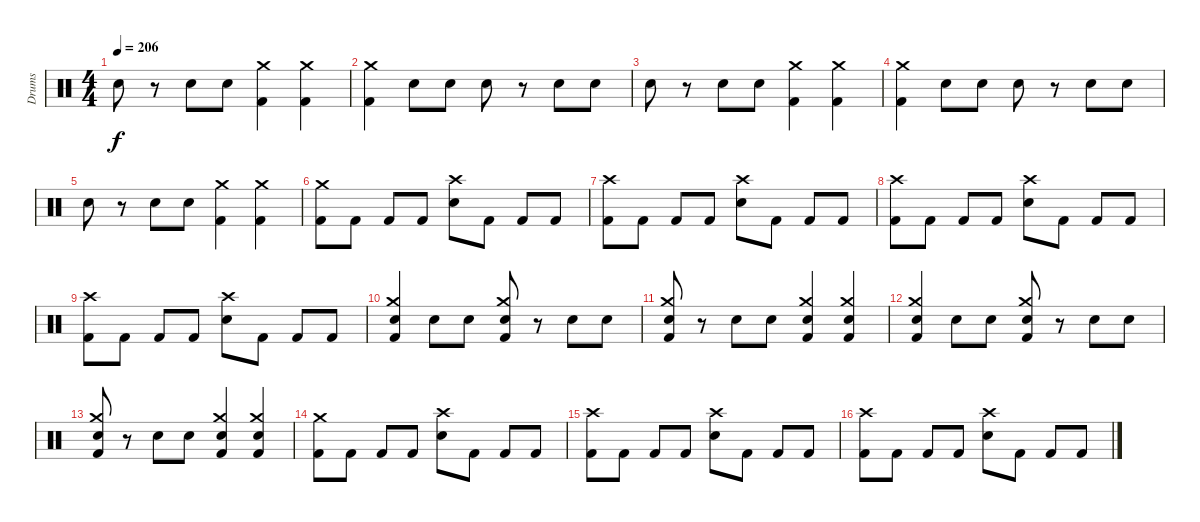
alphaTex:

\track ("Drums" "Drums") {instrument percussion}
\staff {score}
\articulation defaults
\ts (4 4)
\tempo 206
\clef neutral
\ks c "Snare (hit) 2".8{dy f}
r.8 "Snare (hit) 2".8 "Snare (hit) 2".8 ("Crash medium (hit)" "Kick (hit) 2").4 ("Crash medium (hit)" "Kick (hit) 2").4 |
("Crash medium (hit)" "Kick (hit) 2").4 "Snare (hit) 2".8 "Snare (hit) 2".8 "Snare (hit) 2".8 r.8 "Snare (hit) 2".8 "Snare (hit) 2".8 |
"Snare (hit) 2".8 r.8 "Snare (hit) 2".8 "Snare (hit) 2".8 ("Crash medium (hit)" "Kick (hit) 2").4 ("Crash medium (hit)" "Kick (hit) 2").4 |
("Crash medium (hit)" "Kick (hit) 2").4 "Snare (hit) 2".8 "Snare (hit) 2".8 "Snare (hit) 2".8 r.8 "Snare (hit) 2".8 "Snare (hit) 2".8 |
"Snare (hit) 2".8 r.8 "Snare (hit) 2".8 "Snare (hit) 2".8 ("Crash medium (hit)" "Kick (hit) 2").4 ("Crash medium (hit)" "Kick (hit) 2").4 |
("Crash medium (hit)" "Kick (hit) 2").8 "Kick (hit) 2".8 "Kick (hit) 2".8 "Kick (hit) 2".8 ("Crash high (hit)" "Snare (hit) 2").8 "Kick (hit) 2".8 "Kick (hit) 2".8 "Kick (hit) 2".8 |
("Crash high (hit)" "Kick (hit) 2").8 "Kick (hit) 2".8 "Kick (hit) 2".8 "Kick (hit) 2".8 ("Crash high (hit)" "Snare (hit) 2").8 "Kick (hit) 2".8 "Kick (hit) 2".8 "Kick (hit) 2".8 |
("Crash high (hit)" "Kick (hit) 2").8 "Kick (hit) 2".8 "Kick (hit) 2".8 "Kick (hit) 2".8 ("Crash high (hit)" "Snare (hit) 2").8 "Kick (hit) 2".8 "Kick (hit) 2".8 "Kick (hit) 2".8 |
("Crash high (hit)" "Kick (hit) 2").8 "Kick (hit) 2".8 "Kick (hit) 2".8 "Kick (hit) 2".8 ("Crash high (hit)" "Snare (hit) 2").8 "Kick (hit) 2".8 "Kick (hit) 2".8 "Kick (hit) 2".8 |
("Crash medium (hit)" "Snare (hit) 2" "Kick (hit) 2").4 "Snare (hit) 2".8 "Snare (hit) 2".8 ("Crash medium (hit)" "Snare (hit) 2" "Kick (hit) 2").8 r.8 "Snare (hit) 2".8 "Snare (hit) 2".8 |
("Crash medium (hit)" "Snare (hit) 2" "Kick (hit) 2").8 r.8 "Snare (hit) 2".8 "Snare (hit) 2".8 ("Crash medium (hit)" "Snare (hit) 2" "Kick (hit) 2").4 ("Crash medium (hit)" "Snare (hit) 2" "Kick (hit) 2").4 |
("Crash medium (hit)" "Snare (hit) 2" "Kick (hit) 2").4 "Snare (hit) 2".8 "Snare (hit) 2".8 ("Crash medium (hit)" "Snare (hit) 2" "Kick (hit) 2").8 r.8 "Snare (hit) 2".8 "Snare (hit) 2".8 |
("Crash medium (hit)" "Snare (hit) 2" "Kick (hit) 2").8 r.8 "Snare (hit) 2".8 "Snare (hit) 2".8 ("Crash medium (hit)" "Snare (hit) 2" "Kick (hit) 2").4 ("Crash medium (hit)" "Snare (hit) 2" "Kick (hit) 2").4 |
("Crash medium (hit)" "Kick (hit) 2").8 "Kick (hit) 2".8 "Kick (hit) 2".8 "Kick (hit) 2".8 ("Crash high (hit)" "Snare (hit) 2").8 "Kick (hit) 2".8 "Kick (hit) 2".8 "Kick (hit) 2".8 |
("Crash high (hit)" "Kick (hit) 2").8 "Kick (hit) 2".8 "Kick (hit) 2".8 "Kick (hit) 2".8 ("Crash high (hit)" "Snare (hit) 2").8 "Kick (hit) 2".8 "Kick (hit) 2".8 "Kick (hit) 2".8 |
("Crash high (hit)" "Kick (hit) 2").8 "Kick (hit) 2".8 "Kick (hit) 2".8 "Kick (hit) 2".8 ("Crash high (hit)" "Snare (hit) 2").8 "Kick (hit) 2".8 "Kick (hit) 2".8 "Kick (hit) 2".8
